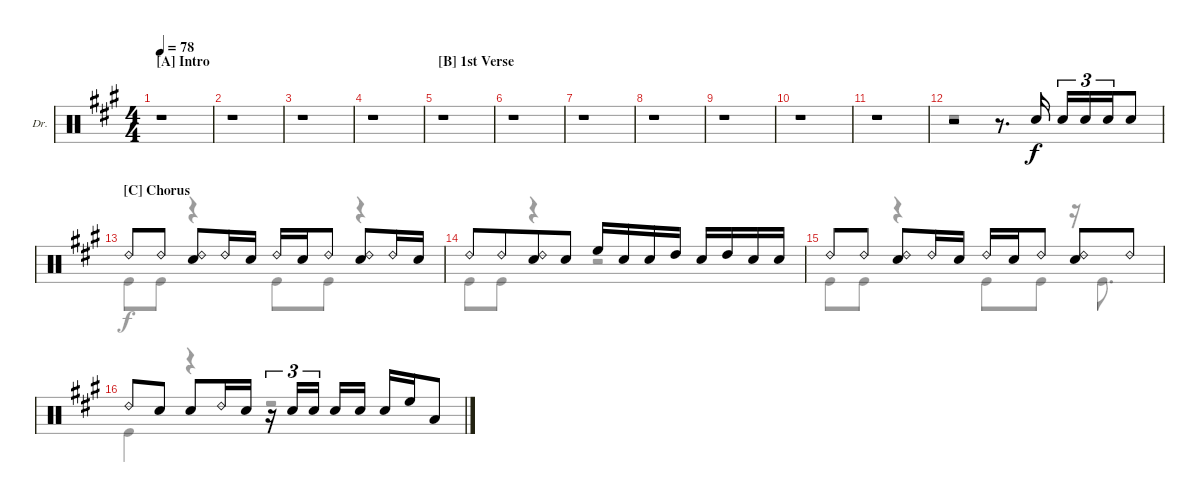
\defaultSystemsLayout 4
\bracketExtendMode groupsimilarinstruments
\firstSystemTrackNameOrientation horizontal
\otherSystemsTrackNameOrientation horizontal
\track ("Drums" "Dr.") {instrument percussion}
\staff {score}
\articulation defaults
\voice
\ts (4 4)
\section ("A" "Intro")
\tempo 78
\clef neutral
\ks a
r.1{dy f} |
r.1 |
r.1 |
r.1 |
\section ("B" "1st Verse")
r.1 |
r.1 |
r.1 |
r.1 |
r.1 |
r.1 |
r.1 |
r.2 r.8{d} "Snare (hit) 2".16 "Snare (hit) 2".16{tu (3 2)} "Snare (hit) 2".16{tu (3 2)} "Snare (hit) 2".16{tu (3 2) beam merge} "Snare (hit) 2".8 |
\section ("C" "Chorus")
"Ride (bell) 2".8 "Ride (bell) 2".8 ("Ride (bell) 2" "Snare (hit) 2").8 "Ride (bell) 2".16 "Snare (hit) 2".16 "Ride (bell) 2".16 "Snare (hit) 2".16 "Ride (bell) 2".8 ("Ride (bell) 2" "Snare (hit) 2").8 "Ride (bell) 2".16 "Snare (hit) 2".16 |
"Ride (bell) 2".8 "Ride (bell) 2".8{beam merge} ("Ride (bell) 2" "Snare (hit) 2").8 "Snare (hit) 2".8 "High Floor Tom (hit)".16 "Snare (hit) 2".16 "Snare (hit) 2".16 "High Tom (hit)".16 "Snare (hit) 2".16 "High Tom (hit)".16 "Snare (hit) 2".16 "Snare (hit) 2".16 |
"Ride (bell) 2".8 "Ride (bell) 2".8 ("Ride (bell) 2" "Snare (hit) 2").8 "Ride (bell) 2".16 "Snare (hit) 2".16 "Ride (bell) 2".16 "Snare (hit) 2".16 "Ride (bell) 2".8 ("Ride (bell) 2" "Snare (hit) 2").8 "Ride (bell) 2".8 |
"Ride (bell) 2".8 "Snare (hit) 2".8 "Snare (hit) 2".8 "Ride (bell) 2".16 "Snare (hit) 2".16 r.16{tu (3 2)} "Snare (hit) 2".16{tu (3 2)} "Snare (hit) 2".16{tu (3 2) beam splitsecondary} "Snare (hit) 2".16 "Snare (hit) 2".16 "Snare (hit) 2".16 "High Floor Tom (hit)".16 "Low Tom (hit)".8
\voice
\clef neutral
\ottava regular
\simile none
\ks a
|
|
|
|
|
|
|
|
|
|
|
r.1 |
"Kick (hit)".8 "Kick (hit)".8 r.4 "Kick (hit)".8 "Kick (hit)".8 r.4 |
"Kick (hit)".8 "Kick (hit)".8 r.4 r.2 |
"Kick (hit)".8 "Kick (hit)".8 r.4 "Kick (hit)".8 "Kick (hit)".8 r.16 "Kick (hit)".8{d} |
"Kick (hit)".4 r.4 r.2
